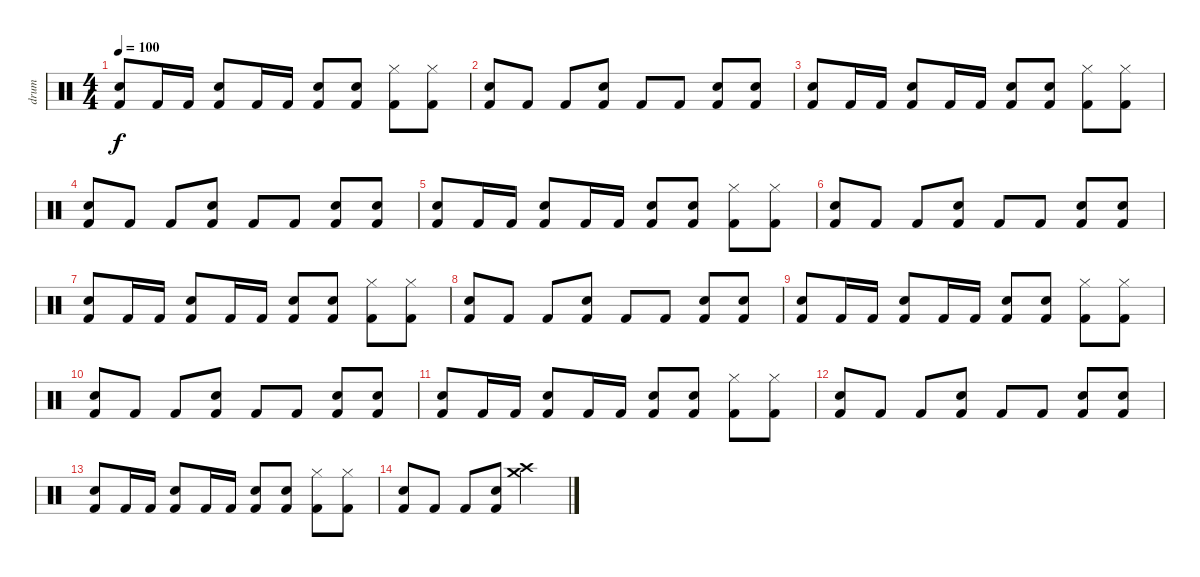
\track ("drum" "drum") {instrument percussion}
\staff {score}
\articulation defaults
\ts (4 4)
\tempo 100
\clef neutral
\ks c
("Electric Snare (hit)" "Kick (hit) 2").8{dy f} "Kick (hit) 2".16 "Kick (hit) 2".16 ("Electric Snare (hit)" "Kick (hit) 2").8 "Kick (hit) 2".16 "Kick (hit) 2".16 ("Electric Snare (hit)" "Kick (hit) 2").8 ("Electric Snare (hit)" "Kick (hit) 2").8 ("Hi-Hat (closed)" "Kick (hit) 2").8 ("Hi-Hat (closed)" "Kick (hit) 2").8 |
("Electric Snare (hit)" "Kick (hit) 2").8 "Kick (hit) 2".8 "Kick (hit) 2".8 ("Electric Snare (hit)" "Kick (hit) 2").8 "Kick (hit) 2".8 "Kick (hit) 2".8 ("Electric Snare (hit)" "Kick (hit) 2").8 ("Electric Snare (hit)" "Kick (hit) 2").8 |
("Electric Snare (hit)" "Kick (hit) 2").8 "Kick (hit) 2".16 "Kick (hit) 2".16 ("Electric Snare (hit)" "Kick (hit) 2").8 "Kick (hit) 2".16 "Kick (hit) 2".16 ("Electric Snare (hit)" "Kick (hit) 2").8 ("Electric Snare (hit)" "Kick (hit) 2").8 ("Hi-Hat (closed)" "Kick (hit) 2").8 ("Hi-Hat (closed)" "Kick (hit) 2").8 |
("Electric Snare (hit)" "Kick (hit) 2").8 "Kick (hit) 2".8 "Kick (hit) 2".8 ("Electric Snare (hit)" "Kick (hit) 2").8 "Kick (hit) 2".8 "Kick (hit) 2".8 ("Electric Snare (hit)" "Kick (hit) 2").8 ("Electric Snare (hit)" "Kick (hit) 2").8 |
("Electric Snare (hit)" "Kick (hit) 2").8 "Kick (hit) 2".16 "Kick (hit) 2".16 ("Electric Snare (hit)" "Kick (hit) 2").8 "Kick (hit) 2".16 "Kick (hit) 2".16 ("Electric Snare (hit)" "Kick (hit) 2").8 ("Electric Snare (hit)" "Kick (hit) 2").8 ("Hi-Hat (closed)" "Kick (hit) 2").8 ("Hi-Hat (closed)" "Kick (hit) 2").8 |
("Electric Snare (hit)" "Kick (hit) 2").8 "Kick (hit) 2".8 "Kick (hit) 2".8 ("Electric Snare (hit)" "Kick (hit) 2").8 "Kick (hit) 2".8 "Kick (hit) 2".8 ("Electric Snare (hit)" "Kick (hit) 2").8 ("Electric Snare (hit)" "Kick (hit) 2").8 |
("Electric Snare (hit)" "Kick (hit) 2").8 "Kick (hit) 2".16 "Kick (hit) 2".16 ("Electric Snare (hit)" "Kick (hit) 2").8 "Kick (hit) 2".16 "Kick (hit) 2".16 ("Electric Snare (hit)" "Kick (hit) 2").8 ("Electric Snare (hit)" "Kick (hit) 2").8 ("Hi-Hat (closed)" "Kick (hit) 2").8 ("Hi-Hat (closed)" "Kick (hit) 2").8 |
("Electric Snare (hit)" "Kick (hit) 2").8 "Kick (hit) 2".8 "Kick (hit) 2".8 ("Electric Snare (hit)" "Kick (hit) 2").8 "Kick (hit) 2".8 "Kick (hit) 2".8 ("Electric Snare (hit)" "Kick (hit) 2").8 ("Electric Snare (hit)" "Kick (hit) 2").8 |
("Electric Snare (hit)" "Kick (hit) 2").8 "Kick (hit) 2".16 "Kick (hit) 2".16 ("Electric Snare (hit)" "Kick (hit) 2").8 "Kick (hit) 2".16 "Kick (hit) 2".16 ("Electric Snare (hit)" "Kick (hit) 2").8 ("Electric Snare (hit)" "Kick (hit) 2").8 ("Hi-Hat (closed)" "Kick (hit) 2").8 ("Hi-Hat (closed)" "Kick (hit) 2").8 |
("Electric Snare (hit)" "Kick (hit) 2").8 "Kick (hit) 2".8 "Kick (hit) 2".8 ("Electric Snare (hit)" "Kick (hit) 2").8 "Kick (hit) 2".8 "Kick (hit) 2".8 ("Electric Snare (hit)" "Kick (hit) 2").8 ("Electric Snare (hit)" "Kick (hit) 2").8 |
("Electric Snare (hit)" "Kick (hit) 2").8 "Kick (hit) 2".16 "Kick (hit) 2".16 ("Electric Snare (hit)" "Kick (hit) 2").8 "Kick (hit) 2".16 "Kick (hit) 2".16 ("Electric Snare (hit)" "Kick (hit) 2").8 ("Electric Snare (hit)" "Kick (hit) 2").8 ("Hi-Hat (closed)" "Kick (hit) 2").8 ("Hi-Hat (closed)" "Kick (hit) 2").8 |
("Electric Snare (hit)" "Kick (hit) 2").8 "Kick (hit) 2".8 "Kick (hit) 2".8 ("Electric Snare (hit)" "Kick (hit) 2").8 "Kick (hit) 2".8 "Kick (hit) 2".8 ("Electric Snare (hit)" "Kick (hit) 2").8 ("Electric Snare (hit)" "Kick (hit) 2").8 |
("Electric Snare (hit)" "Kick (hit) 2").8 "Kick (hit) 2".16 "Kick (hit) 2".16 ("Electric Snare (hit)" "Kick (hit) 2").8 "Kick (hit) 2".16 "Kick (hit) 2".16 ("Electric Snare (hit)" "Kick (hit) 2").8 ("Electric Snare (hit)" "Kick (hit) 2").8 ("Hi-Hat (closed)" "Kick (hit) 2").8 ("Hi-Hat (closed)" "Kick (hit) 2").8 |
("Electric Snare (hit)" "Kick (hit) 2").8 "Kick (hit) 2".8 "Kick (hit) 2".8 ("Electric Snare (hit)" "Kick (hit) 2").8 ("Crash medium (hit)" "Crash high (hit)").2
